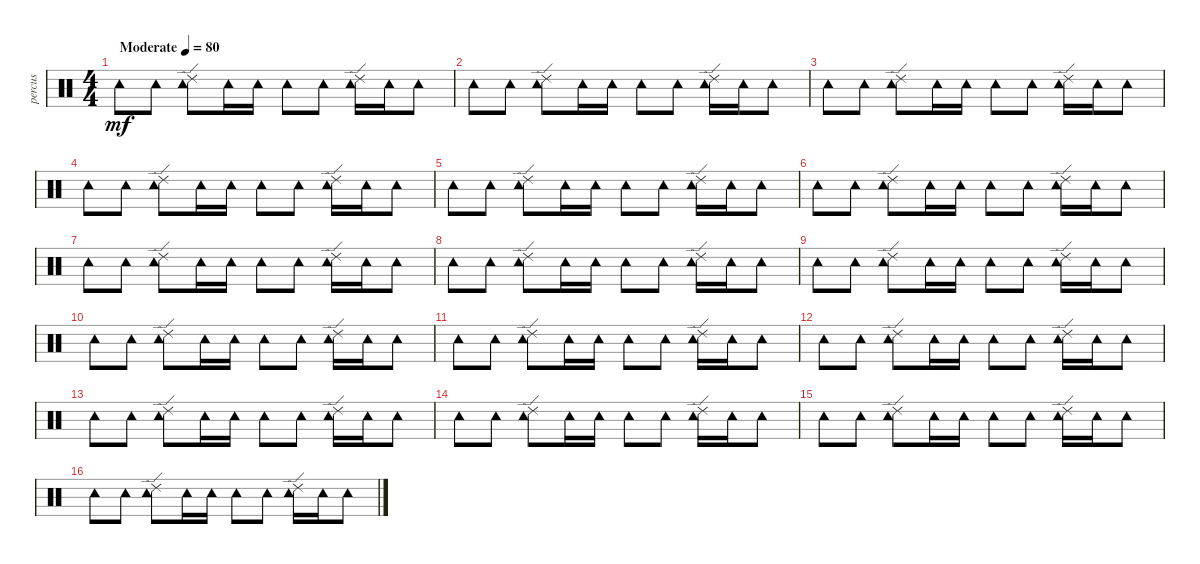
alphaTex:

\track ("percus" "percus") {instrument percussion}
\staff {score}
\articulation defaults
\ts (4 4)
\tempo (80 "Moderate")
\clef neutral
\ks c "Tambourine (hit)".8{dy mf} "Tambourine (hit)".8
("Tambourine (hit)" "Ride (edge) 2").8 "Tambourine (hit)".16 "Tambourine (hit)".16 "Tambourine (hit)".8 "Tambourine (hit)".8 ("Tambourine (hit)" "Ride (edge) 2").16 "Tambourine (hit)".16 "Tambourine (hit)".8 |
"Tambourine (hit)".8 "Tambourine (hit)".8 ("Tambourine (hit)" "Ride (edge) 2").8 "Tambourine (hit)".16 "Tambourine (hit)".16 "Tambourine (hit)".8 "Tambourine (hit)".8 ("Tambourine (hit)" "Ride (edge) 2").16 "Tambourine (hit)".16 "Tambourine (hit)".8 |
"Tambourine (hit)".8 "Tambourine (hit)".8 ("Tambourine (hit)" "Ride (edge) 2").8 "Tambourine (hit)".16 "Tambourine (hit)".16 "Tambourine (hit)".8 "Tambourine (hit)".8 ("Tambourine (hit)" "Ride (edge) 2").16 "Tambourine (hit)".16 "Tambourine (hit)".8 |
"Tambourine (hit)".8 "Tambourine (hit)".8 ("Tambourine (hit)" "Ride (edge) 2").8 "Tambourine (hit)".16 "Tambourine (hit)".16 "Tambourine (hit)".8 "Tambourine (hit)".8 ("Tambourine (hit)" "Ride (edge) 2").16 "Tambourine (hit)".16 "Tambourine (hit)".8 |
"Tambourine (hit)".8 "Tambourine (hit)".8 ("Tambourine (hit)" "Ride (edge) 2").8 "Tambourine (hit)".16 "Tambourine (hit)".16 "Tambourine (hit)".8 "Tambourine (hit)".8 ("Tambourine (hit)" "Ride (edge) 2").16 "Tambourine (hit)".16 "Tambourine (hit)".8 |
"Tambourine (hit)".8 "Tambourine (hit)".8 ("Tambourine (hit)" "Ride (edge) 2").8 "Tambourine (hit)".16 "Tambourine (hit)".16 "Tambourine (hit)".8 "Tambourine (hit)".8 ("Tambourine (hit)" "Ride (edge) 2").16 "Tambourine (hit)".16 "Tambourine (hit)".8 |
"Tambourine (hit)".8 "Tambourine (hit)".8 ("Tambourine (hit)" "Ride (edge) 2").8 "Tambourine (hit)".16 "Tambourine (hit)".16 "Tambourine (hit)".8 "Tambourine (hit)".8 ("Tambourine (hit)" "Ride (edge) 2").16 "Tambourine (hit)".16 "Tambourine (hit)".8 |
"Tambourine (hit)".8 "Tambourine (hit)".8 ("Tambourine (hit)" "Ride (edge) 2").8 "Tambourine (hit)".16 "Tambourine (hit)".16 "Tambourine (hit)".8 "Tambourine (hit)".8 ("Tambourine (hit)" "Ride (edge) 2").16 "Tambourine (hit)".16 "Tambourine (hit)".8 |
"Tambourine (hit)".8 "Tambourine (hit)".8 ("Tambourine (hit)" "Ride (edge) 2").8 "Tambourine (hit)".16 "Tambourine (hit)".16 "Tambourine (hit)".8 "Tambourine (hit)".8 ("Tambourine (hit)" "Ride (edge) 2").16 "Tambourine (hit)".16 "Tambourine (hit)".8 |
"Tambourine (hit)".8 "Tambourine (hit)".8 ("Tambourine (hit)" "Ride (edge) 2").8 "Tambourine (hit)".16 "Tambourine (hit)".16 "Tambourine (hit)".8 "Tambourine (hit)".8 ("Tambourine (hit)" "Ride (edge) 2").16 "Tambourine (hit)".16 "Tambourine (hit)".8 |
"Tambourine (hit)".8 "Tambourine (hit)".8 ("Tambourine (hit)" "Ride (edge) 2").8 "Tambourine (hit)".16 "Tambourine (hit)".16 "Tambourine (hit)".8 "Tambourine (hit)".8 ("Tambourine (hit)" "Ride (edge) 2").16 "Tambourine (hit)".16 "Tambourine (hit)".8 |
"Tambourine (hit)".8 "Tambourine (hit)".8 ("Tambourine (hit)" "Ride (edge) 2").8 "Tambourine (hit)".16 "Tambourine (hit)".16 "Tambourine (hit)".8 "Tambourine (hit)".8 ("Tambourine (hit)" "Ride (edge) 2").16 "Tambourine (hit)".16 "Tambourine (hit)".8 |
"Tambourine (hit)".8 "Tambourine (hit)".8 ("Tambourine (hit)" "Ride (edge) 2").8 "Tambourine (hit)".16 "Tambourine (hit)".16 "Tambourine (hit)".8 "Tambourine (hit)".8 ("Tambourine (hit)" "Ride (edge) 2").16 "Tambourine (hit)".16 "Tambourine (hit)".8 |
"Tambourine (hit)".8 "Tambourine (hit)".8 ("Tambourine (hit)" "Ride (edge) 2").8 "Tambourine (hit)".16 "Tambourine (hit)".16 "Tambourine (hit)".8 "Tambourine (hit)".8 ("Tambourine (hit)" "Ride (edge) 2").16 "Tambourine (hit)".16 "Tambourine (hit)".8 |
"Tambourine (hit)".8 "Tambourine (hit)".8 ("Tambourine (hit)" "Ride (edge) 2").8 "Tambourine (hit)".16 "Tambourine (hit)".16 "Tambourine (hit)".8 "Tambourine (hit)".8 ("Tambourine (hit)" "Ride (edge) 2").16 "Tambourine (hit)".16 "Tambourine (hit)".8 |
"Tambourine (hit)".8 "Tambourine (hit)".8 ("Tambourine (hit)" "Ride (edge) 2").8 "Tambourine (hit)".16 "Tambourine (hit)".16 "Tambourine (hit)".8 "Tambourine (hit)".8 ("Tambourine (hit)" "Ride (edge) 2").16 "Tambourine (hit)".16 "Tambourine (hit)".8
